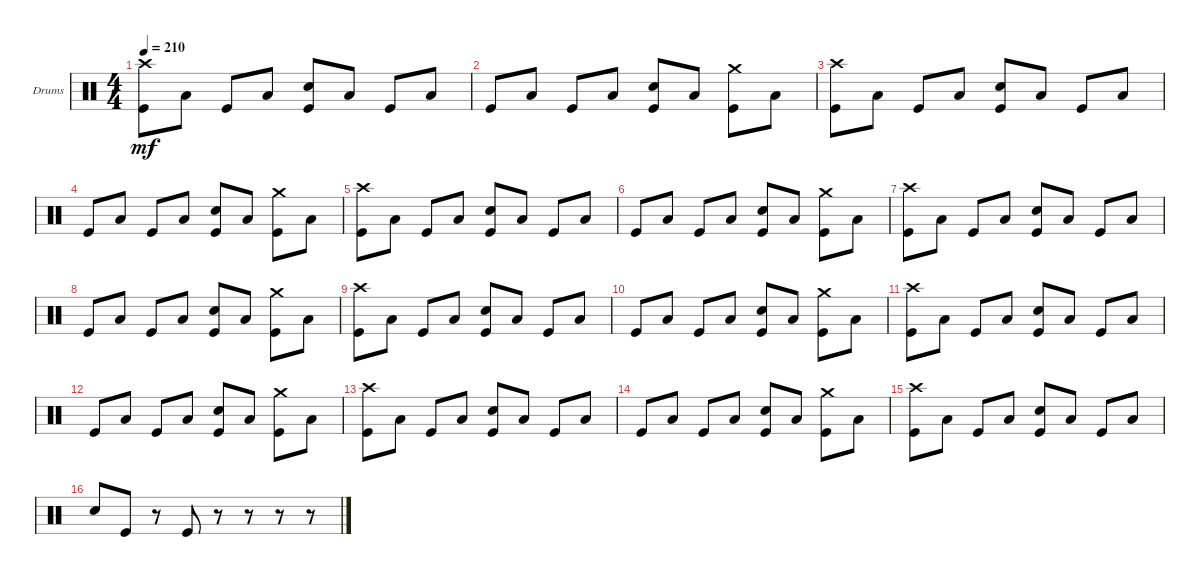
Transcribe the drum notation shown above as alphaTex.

\defaultSystemsLayout 4
\bracketExtendMode groupsimilarinstruments
\firstSystemTrackNameOrientation horizontal
\otherSystemsTrackNameOrientation horizontal
\track ("Dan Johnson (Drums)" "Drums") {instrument percussion}
\staff {score}
\articulation defaults
\ts (4 4)
\tempo 210
\clef neutral
\ks c
("Kick (hit)" "Crash high (hit)").8{dy mf} "Low Tom (hit)".8 "Kick (hit)".8 "Low Tom (hit)".8 ("Snare (hit) 2" "Kick (hit)").8 "Low Tom (hit)".8 "Kick (hit)".8 "Low Tom (hit)".8 |
"Kick (hit)".8 "Low Tom (hit)".8 "Kick (hit)".8 "Low Tom (hit)".8 ("Snare (hit) 2" "Kick (hit)").8 "Low Tom (hit)".8 ("Kick (hit)" "Crash medium (hit)").8 "Low Tom (hit)".8 |
("Kick (hit)" "Crash high (hit)").8 "Low Tom (hit)".8 "Kick (hit)".8 "Low Tom (hit)".8 ("Snare (hit) 2" "Kick (hit)").8 "Low Tom (hit)".8 "Kick (hit)".8 "Low Tom (hit)".8 |
"Kick (hit)".8 "Low Tom (hit)".8 "Kick (hit)".8 "Low Tom (hit)".8 ("Snare (hit) 2" "Kick (hit)").8 "Low Tom (hit)".8 ("Kick (hit)" "Crash medium (hit)").8 "Low Tom (hit)".8 |
("Kick (hit)" "Crash high (hit)").8 "Low Tom (hit)".8 "Kick (hit)".8 "Low Tom (hit)".8 ("Snare (hit) 2" "Kick (hit)").8 "Low Tom (hit)".8 "Kick (hit)".8 "Low Tom (hit)".8 |
"Kick (hit)".8 "Low Tom (hit)".8 "Kick (hit)".8 "Low Tom (hit)".8 ("Snare (hit) 2" "Kick (hit)").8 "Low Tom (hit)".8 ("Kick (hit)" "Crash medium (hit)").8 "Low Tom (hit)".8 |
("Kick (hit)" "Crash high (hit)").8 "Low Tom (hit)".8 "Kick (hit)".8 "Low Tom (hit)".8 ("Snare (hit) 2" "Kick (hit)").8 "Low Tom (hit)".8 "Kick (hit)".8 "Low Tom (hit)".8 |
"Kick (hit)".8 "Low Tom (hit)".8 "Kick (hit)".8 "Low Tom (hit)".8 ("Snare (hit) 2" "Kick (hit)").8 "Low Tom (hit)".8 ("Kick (hit)" "Crash medium (hit)").8 "Low Tom (hit)".8 |
("Kick (hit)" "Crash high (hit)").8 "Low Tom (hit)".8 "Kick (hit)".8 "Low Tom (hit)".8 ("Snare (hit) 2" "Kick (hit)").8 "Low Tom (hit)".8 "Kick (hit)".8 "Low Tom (hit)".8 |
"Kick (hit)".8 "Low Tom (hit)".8 "Kick (hit)".8 "Low Tom (hit)".8 ("Snare (hit) 2" "Kick (hit)").8 "Low Tom (hit)".8 ("Kick (hit)" "Crash medium (hit)").8 "Low Tom (hit)".8 |
("Kick (hit)" "Crash high (hit)").8 "Low Tom (hit)".8 "Kick (hit)".8 "Low Tom (hit)".8 ("Snare (hit) 2" "Kick (hit)").8 "Low Tom (hit)".8 "Kick (hit)".8 "Low Tom (hit)".8 |
"Kick (hit)".8 "Low Tom (hit)".8 "Kick (hit)".8 "Low Tom (hit)".8 ("Snare (hit) 2" "Kick (hit)").8 "Low Tom (hit)".8 ("Kick (hit)" "Crash medium (hit)").8 "Low Tom (hit)".8 |
("Kick (hit)" "Crash high (hit)").8 "Low Tom (hit)".8 "Kick (hit)".8 "Low Tom (hit)".8 ("Snare (hit) 2" "Kick (hit)").8 "Low Tom (hit)".8 "Kick (hit)".8 "Low Tom (hit)".8 |
"Kick (hit)".8 "Low Tom (hit)".8 "Kick (hit)".8 "Low Tom (hit)".8 ("Snare (hit) 2" "Kick (hit)").8 "Low Tom (hit)".8 ("Kick (hit)" "Crash medium (hit)").8 "Low Tom (hit)".8 |
("Kick (hit)" "Crash high (hit)").8 "Low Tom (hit)".8 "Kick (hit)".8 "Low Tom (hit)".8 ("Snare (hit) 2" "Kick (hit)").8 "Low Tom (hit)".8 "Kick (hit)".8 "Low Tom (hit)".8 |
"Snare (hit) 2".8 "Kick (hit)".8 r.8 "Kick (hit)".8 r.8 r.8 r.8 r.8
